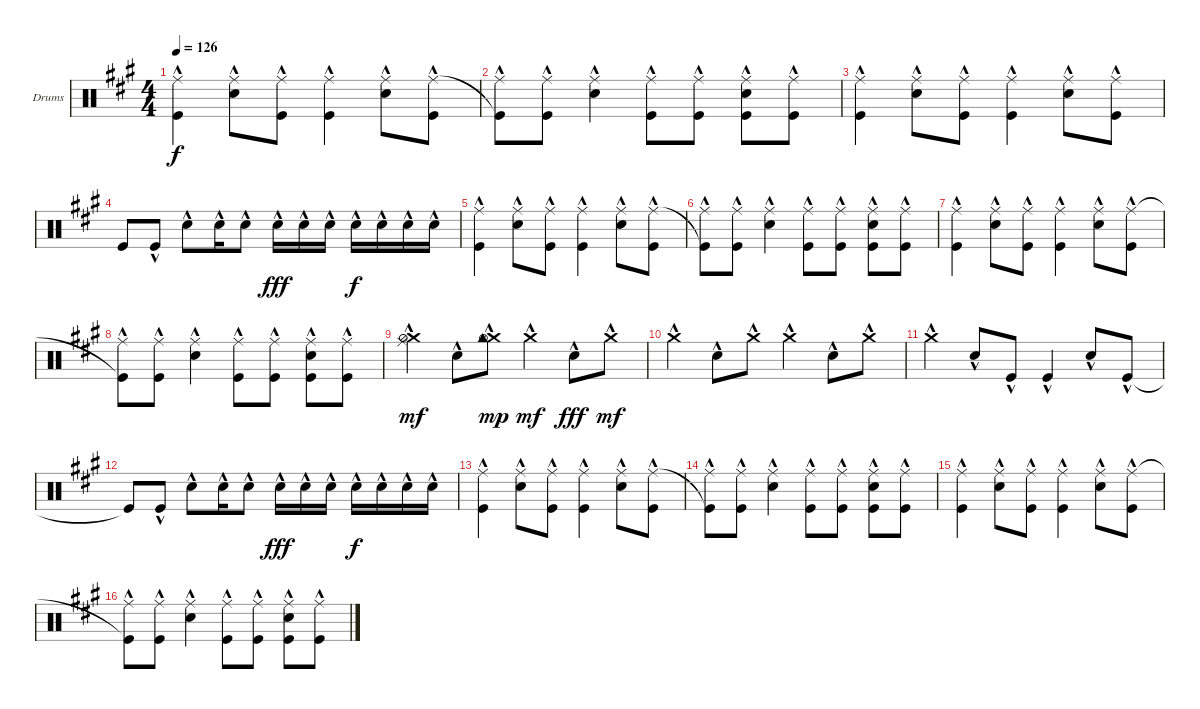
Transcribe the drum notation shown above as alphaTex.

\defaultSystemsLayout 4
\bracketExtendMode groupsimilarinstruments
\firstSystemTrackNameOrientation horizontal
\otherSystemsTrackNameOrientation horizontal
\track ("Drumkit" "Drums") {instrument percussion}
\staff {score}
\articulation defaults
\ts (4 4)
\tempo 126
\clef neutral
\scale
1.05801
\ks a
("Kick (hit)"{hac} "Ride (middle)"{hac}).4{dy f} ("Snare (hit) 2"{hac} "Ride (middle)"{hac}).8 ("Kick (hit)"{hac} "Ride (middle)"{hac}).8 ("Kick (hit)"{hac} "Ride (middle)"{hac}).4 ("Snare (hit) 2"{hac} "Ride (middle)"{hac}).8 ("Kick (hit)"{hac} "Ride (middle)"{hac}).8 |
\scale
0.941992 ("Ride (middle)"{hac} "Kick (hit)"{t}).8 ("Kick (hit)"{hac} "Ride (middle)"{hac}).8 ("Snare (hit) 2"{hac} "Ride (middle)"{hac}).4 ("Ride (middle)"{hac} "Kick (hit)"{hac}).8 ("Kick (hit)"{hac} "Ride (middle)"{hac}).8 ("Kick (hit)"{hac} "Snare (hit) 2"{hac} "Ride (middle)"{hac}).8 ("Kick (hit)"{hac} "Ride (middle)"{hac}).8 |
\scale
1.05801 ("Kick (hit)"{hac} "Ride (middle)"{hac}).4 ("Snare (hit) 2"{hac} "Ride (middle)"{hac}).8 ("Kick (hit)"{hac} "Ride (middle)"{hac}).8 ("Kick (hit)"{hac} "Ride (middle)"{hac}).4 ("Snare (hit) 2"{hac} "Ride (middle)"{hac}).8 ("Kick (hit)"{hac} "Ride (middle)"{hac}).8 |
\scale
0.941992 "Kick (hit)".8 "Kick (hit)"{hac}.8 "Snare (hit) 2"{hac}.8 "Snare (hit) 2"{hac}.16 "Snare (hit) 2"{hac}.8 "Snare (hit) 2"{hac}.16{dy fff} "Snare (hit) 2"{hac}.16 "Snare (hit) 2"{hac}.16 "Snare (hit) 2"{hac}.16{dy f} "Snare (hit) 2"{hac}.16 "Snare (hit) 2"{hac}.16 "Snare (hit) 2"{hac}.16 |
\scale
1.05801 ("Kick (hit)"{hac} "Ride (middle)"{hac}).4 ("Snare (hit) 2"{hac} "Ride (middle)"{hac}).8 ("Kick (hit)"{hac} "Ride (middle)"{hac}).8 ("Kick (hit)"{hac} "Ride (middle)"{hac}).4 ("Snare (hit) 2"{hac} "Ride (middle)"{hac}).8 ("Kick (hit)"{hac} "Ride (middle)"{hac}).8 |
\scale
0.941992 ("Ride (middle)"{hac} "Kick (hit)"{t}).8 ("Kick (hit)"{hac} "Ride (middle)"{hac}).8 ("Snare (hit) 2"{hac} "Ride (middle)"{hac}).4 ("Ride (middle)"{hac} "Kick (hit)"{hac}).8 ("Kick (hit)"{hac} "Ride (middle)"{hac}).8 ("Kick (hit)"{hac} "Snare (hit) 2"{hac} "Ride (middle)"{hac}).8 ("Kick (hit)"{hac} "Ride (middle)"{hac}).8 |
\scale
1.05801 ("Kick (hit)"{hac} "Ride (middle)"{hac}).4 ("Snare (hit) 2"{hac} "Ride (middle)"{hac}).8 ("Kick (hit)"{hac} "Ride (middle)"{hac}).8 ("Kick (hit)"{hac} "Ride (middle)"{hac}).4 ("Snare (hit) 2"{hac} "Ride (middle)"{hac}).8 ("Kick (hit)"{hac} "Ride (middle)"{hac}).8 |
\scale
0.941992 ("Ride (middle)"{hac} "Kick (hit)"{t}).8 ("Kick (hit)"{hac} "Ride (middle)"{hac}).8 ("Snare (hit) 2"{hac} "Ride (middle)"{hac}).4 ("Ride (middle)"{hac} "Kick (hit)"{hac}).8 ("Kick (hit)"{hac} "Ride (middle)"{hac}).8 ("Kick (hit)"{hac} "Snare (hit) 2"{hac} "Ride (middle)"{hac}).8 ("Kick (hit)"{hac} "Ride (middle)"{hac}).8 |
\scale
1.05801 ("Crash medium (hit)"{hac} "Ride (middle)" "Hi-Hat (half)").4{dy mf} "Snare (hit) 2"{hac}.8 ("Crash medium (hit)"{hac} "Hi-Hat (open)" "Cowbell high (hit)").8{dy mp} "Crash medium (hit)"{hac}.4{dy mf} "Snare (hit) 2"{hac}.8{dy fff} "Crash medium (hit)"{hac}.8{dy mf} |
\scale
0.941992 "Crash medium (hit)"{hac}.4 "Snare (hit) 2"{hac}.8 "Crash medium (hit)"{hac}.8 "Crash medium (hit)"{hac}.4 "Snare (hit) 2"{hac}.8 "Crash medium (hit)"{hac}.8 |
\scale
1.05801 "Crash medium (hit)"{hac}.4 "Snare (hit) 2"{hac}.8 "Kick (hit)"{hac}.8 "Kick (hit)"{hac}.4 "Snare (hit) 2"{hac}.8 "Kick (hit)"{hac}.8 |
\scale
0.941992 "Kick (hit)"{t}.8 "Kick (hit)"{hac}.8 "Snare (hit) 2"{hac}.8 "Snare (hit) 2"{hac}.16 "Snare (hit) 2"{hac}.8 "Snare (hit) 2"{hac}.16{dy fff} "Snare (hit) 2"{hac}.16 "Snare (hit) 2"{hac}.16 "Snare (hit) 2"{hac}.16{dy f} "Snare (hit) 2"{hac}.16 "Snare (hit) 2"{hac}.16 "Snare (hit) 2"{hac}.16 |
\scale
1.05801 ("Kick (hit)"{hac} "Ride (middle)"{hac}).4 ("Snare (hit) 2"{hac} "Ride (middle)"{hac}).8 ("Kick (hit)"{hac} "Ride (middle)"{hac}).8 ("Kick (hit)"{hac} "Ride (middle)"{hac}).4 ("Snare (hit) 2"{hac} "Ride (middle)"{hac}).8 ("Kick (hit)"{hac} "Ride (middle)"{hac}).8 |
\scale
0.941992 ("Ride (middle)"{hac} "Kick (hit)"{t}).8 ("Kick (hit)"{hac} "Ride (middle)"{hac}).8 ("Snare (hit) 2"{hac} "Ride (middle)"{hac}).4 ("Ride (middle)"{hac} "Kick (hit)"{hac}).8 ("Kick (hit)"{hac} "Ride (middle)"{hac}).8 ("Kick (hit)"{hac} "Snare (hit) 2"{hac} "Ride (middle)"{hac}).8 ("Kick (hit)"{hac} "Ride (middle)"{hac}).8 |
\scale
1.05801 ("Kick (hit)"{hac} "Ride (middle)"{hac}).4 ("Snare (hit) 2"{hac} "Ride (middle)"{hac}).8 ("Kick (hit)"{hac} "Ride (middle)"{hac}).8 ("Kick (hit)"{hac} "Ride (middle)"{hac}).4 ("Snare (hit) 2"{hac} "Ride (middle)"{hac}).8 ("Kick (hit)"{hac} "Ride (middle)"{hac}).8 |
\scale
0.941992 ("Ride (middle)"{hac} "Kick (hit)"{t}).8 ("Kick (hit)"{hac} "Ride (middle)"{hac}).8 ("Snare (hit) 2"{hac} "Ride (middle)"{hac}).4 ("Ride (middle)"{hac} "Kick (hit)"{hac}).8 ("Kick (hit)"{hac} "Ride (middle)"{hac}).8 ("Kick (hit)"{hac} "Snare (hit) 2"{hac} "Ride (middle)"{hac}).8 ("Kick (hit)"{hac} "Ride (middle)"{hac}).8
